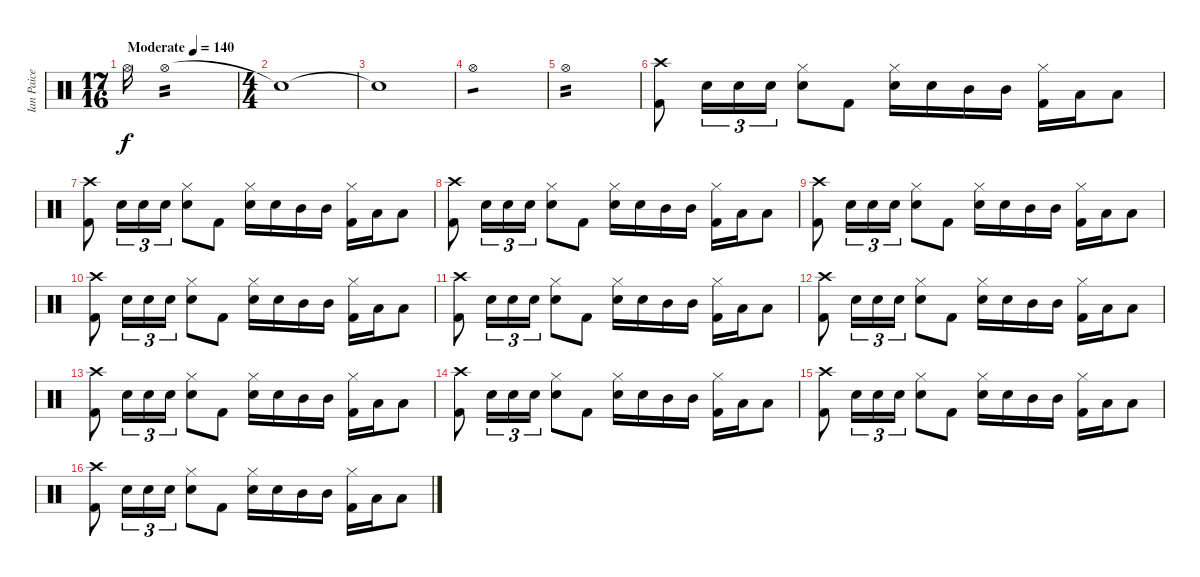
\track ("Ian Paice" "Ian Paice") {instrument percussion}
\staff {score}
\articulation defaults
\ts (17 16)
\tempo (140 "Moderate")
\clef neutral
\ks c "Hi-Hat (open)".16{dy f volume 0} "Hi-Hat (open)".1{tp 2 volume 16}
|
\ts (4 4)
"Snare (hit)"{t}.1 |
"Snare (hit)"{t}.1 |
"Hi-Hat (open)".1{tp 1} |
"Hi-Hat (open)".1{tp 2} |
("Crash high (hit)" "Kick (hit) 2").8 "Snare (hit) 2".16{tu (3 2)} "Snare (hit) 2".16{tu (3 2)} "Snare (hit) 2".16{tu (3 2)} ("Hi-Hat (closed)" "Snare (hit) 2").8 "Kick (hit) 2".8 ("Hi-Hat (closed)" "Snare (hit) 2").16 "Snare (hit) 2".16 "Mid Tom (hit)".16 "Mid Tom (hit)".16 ("Hi-Hat (closed)" "Kick (hit) 2").16 "Low Tom (hit)".16 "Low Tom (hit)".8 |
("Crash high (hit)" "Kick (hit) 2").8 "Snare (hit) 2".16{tu (3 2)} "Snare (hit) 2".16{tu (3 2)} "Snare (hit) 2".16{tu (3 2)} ("Hi-Hat (closed)" "Snare (hit) 2").8 "Kick (hit) 2".8 ("Hi-Hat (closed)" "Snare (hit) 2").16 "Snare (hit) 2".16 "Mid Tom (hit)".16 "Mid Tom (hit)".16 ("Hi-Hat (closed)" "Kick (hit) 2").16 "Low Tom (hit)".16 "Low Tom (hit)".8 |
("Crash high (hit)" "Kick (hit) 2").8 "Snare (hit) 2".16{tu (3 2)} "Snare (hit) 2".16{tu (3 2)} "Snare (hit) 2".16{tu (3 2)} ("Hi-Hat (closed)" "Snare (hit) 2").8 "Kick (hit) 2".8 ("Hi-Hat (closed)" "Snare (hit) 2").16 "Snare (hit) 2".16 "Mid Tom (hit)".16 "Mid Tom (hit)".16 ("Hi-Hat (closed)" "Kick (hit) 2").16 "Low Tom (hit)".16 "Low Tom (hit)".8 |
("Crash high (hit)" "Kick (hit) 2").8 "Snare (hit) 2".16{tu (3 2)} "Snare (hit) 2".16{tu (3 2)} "Snare (hit) 2".16{tu (3 2)} ("Hi-Hat (closed)" "Snare (hit) 2").8 "Kick (hit) 2".8 ("Hi-Hat (closed)" "Snare (hit) 2").16 "Snare (hit) 2".16 "Mid Tom (hit)".16 "Mid Tom (hit)".16 ("Hi-Hat (closed)" "Kick (hit) 2").16 "Low Tom (hit)".16 "Low Tom (hit)".8 |
("Crash high (hit)" "Kick (hit) 2").8 "Snare (hit) 2".16{tu (3 2)} "Snare (hit) 2".16{tu (3 2)} "Snare (hit) 2".16{tu (3 2)} ("Hi-Hat (closed)" "Snare (hit) 2").8 "Kick (hit) 2".8 ("Hi-Hat (closed)" "Snare (hit) 2").16 "Snare (hit) 2".16 "Mid Tom (hit)".16 "Mid Tom (hit)".16 ("Hi-Hat (closed)" "Kick (hit) 2").16 "Low Tom (hit)".16 "Low Tom (hit)".8 |
("Crash high (hit)" "Kick (hit) 2").8 "Snare (hit) 2".16{tu (3 2)} "Snare (hit) 2".16{tu (3 2)} "Snare (hit) 2".16{tu (3 2)} ("Hi-Hat (closed)" "Snare (hit) 2").8 "Kick (hit) 2".8 ("Hi-Hat (closed)" "Snare (hit) 2").16 "Snare (hit) 2".16 "Mid Tom (hit)".16 "Mid Tom (hit)".16 ("Hi-Hat (closed)" "Kick (hit) 2").16 "Low Tom (hit)".16 "Low Tom (hit)".8 |
("Crash high (hit)" "Kick (hit) 2").8 "Snare (hit) 2".16{tu (3 2)} "Snare (hit) 2".16{tu (3 2)} "Snare (hit) 2".16{tu (3 2)} ("Hi-Hat (closed)" "Snare (hit) 2").8 "Kick (hit) 2".8 ("Hi-Hat (closed)" "Snare (hit) 2").16 "Snare (hit) 2".16 "Mid Tom (hit)".16 "Mid Tom (hit)".16 ("Hi-Hat (closed)" "Kick (hit) 2").16 "Low Tom (hit)".16 "Low Tom (hit)".8 |
("Crash high (hit)" "Kick (hit) 2").8 "Snare (hit) 2".16{tu (3 2)} "Snare (hit) 2".16{tu (3 2)} "Snare (hit) 2".16{tu (3 2)} ("Hi-Hat (closed)" "Snare (hit) 2").8 "Kick (hit) 2".8 ("Hi-Hat (closed)" "Snare (hit) 2").16 "Snare (hit) 2".16 "Mid Tom (hit)".16 "Mid Tom (hit)".16 ("Hi-Hat (closed)" "Kick (hit) 2").16 "Low Tom (hit)".16 "Low Tom (hit)".8 |
("Crash high (hit)" "Kick (hit) 2").8 "Snare (hit) 2".16{tu (3 2)} "Snare (hit) 2".16{tu (3 2)} "Snare (hit) 2".16{tu (3 2)} ("Hi-Hat (closed)" "Snare (hit) 2").8 "Kick (hit) 2".8 ("Hi-Hat (closed)" "Snare (hit) 2").16 "Snare (hit) 2".16 "Mid Tom (hit)".16 "Mid Tom (hit)".16 ("Hi-Hat (closed)" "Kick (hit) 2").16 "Low Tom (hit)".16 "Low Tom (hit)".8 |
("Crash high (hit)" "Kick (hit) 2").8 "Snare (hit) 2".16{tu (3 2)} "Snare (hit) 2".16{tu (3 2)} "Snare (hit) 2".16{tu (3 2)} ("Hi-Hat (closed)" "Snare (hit) 2").8 "Kick (hit) 2".8 ("Hi-Hat (closed)" "Snare (hit) 2").16 "Snare (hit) 2".16 "Mid Tom (hit)".16 "Mid Tom (hit)".16 ("Hi-Hat (closed)" "Kick (hit) 2").16 "Low Tom (hit)".16 "Low Tom (hit)".8 |
("Crash high (hit)" "Kick (hit) 2").8 "Snare (hit) 2".16{tu (3 2)} "Snare (hit) 2".16{tu (3 2)} "Snare (hit) 2".16{tu (3 2)} ("Hi-Hat (closed)" "Snare (hit) 2").8 "Kick (hit) 2".8 ("Hi-Hat (closed)" "Snare (hit) 2").16 "Snare (hit) 2".16 "Mid Tom (hit)".16 "Mid Tom (hit)".16 ("Hi-Hat (closed)" "Kick (hit) 2").16 "Low Tom (hit)".16 "Low Tom (hit)".8
